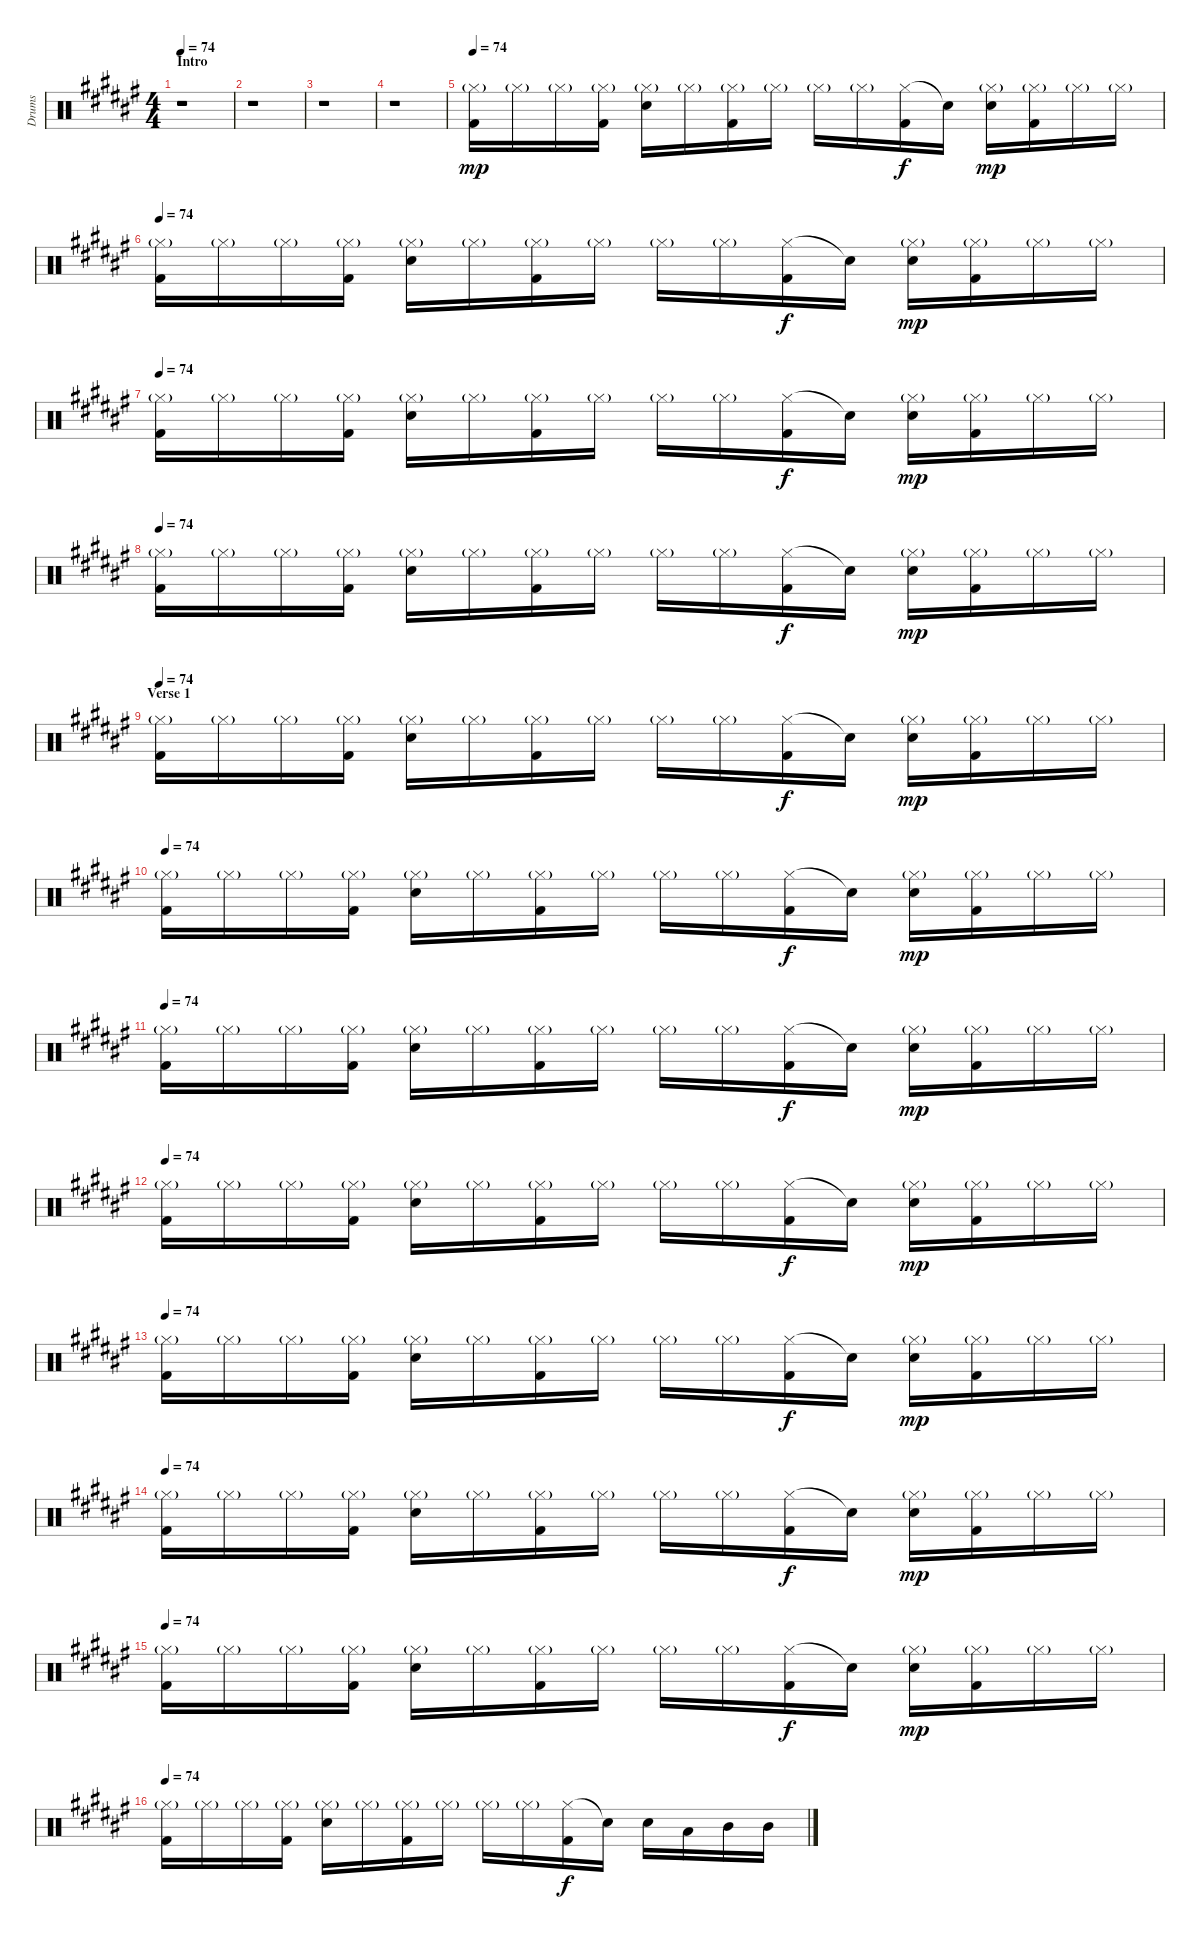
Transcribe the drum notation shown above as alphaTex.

\track ("Drums" "Drums") {instrument percussion}
\staff {score}
\articulation defaults
\ts (4 4)
\section ("" "Intro")
\tempo 74
\tempo 100
\tempo 74
\clef neutral
\ks f#
r.1{dy mp} |
r.1 |
r.1 |
r.1 |
\tempo 74
("Hi-Hat (closed)"{g} "Kick (hit) 2").16 "Hi-Hat (closed)"{g}.16 "Hi-Hat (closed)"{g}.16 ("Hi-Hat (closed)"{g} "Kick (hit) 2").16 ("Hi-Hat (closed)"{g} "Electric Snare (hit)").16 "Hi-Hat (closed)"{g}.16 ("Hi-Hat (closed)"{g} "Kick (hit) 2").16 "Hi-Hat (closed)"{g}.16 "Hi-Hat (closed)"{g}.16 "Hi-Hat (closed)"{g}.16 ("Hi-Hat (closed)" "Kick (hit) 2").16{dy f} "Snare (hit)"{t}.16 ("Hi-Hat (closed)"{g} "Electric Snare (hit)").16{dy mp} ("Hi-Hat (closed)"{g} "Kick (hit) 2").16 "Hi-Hat (closed)"{g}.16 "Hi-Hat (closed)"{g}.16 |
\tempo 74
("Hi-Hat (closed)"{g} "Kick (hit) 2").16 "Hi-Hat (closed)"{g}.16 "Hi-Hat (closed)"{g}.16 ("Hi-Hat (closed)"{g} "Kick (hit) 2").16 ("Hi-Hat (closed)"{g} "Electric Snare (hit)").16 "Hi-Hat (closed)"{g}.16 ("Hi-Hat (closed)"{g} "Kick (hit) 2").16 "Hi-Hat (closed)"{g}.16 "Hi-Hat (closed)"{g}.16 "Hi-Hat (closed)"{g}.16 ("Hi-Hat (closed)" "Kick (hit) 2").16{dy f} "Snare (hit)"{t}.16 ("Hi-Hat (closed)"{g} "Electric Snare (hit)").16{dy mp} ("Hi-Hat (closed)"{g} "Kick (hit) 2").16 "Hi-Hat (closed)"{g}.16 "Hi-Hat (closed)"{g}.16 |
\tempo 74
("Hi-Hat (closed)"{g} "Kick (hit) 2").16 "Hi-Hat (closed)"{g}.16 "Hi-Hat (closed)"{g}.16 ("Hi-Hat (closed)"{g} "Kick (hit) 2").16 ("Hi-Hat (closed)"{g} "Electric Snare (hit)").16 "Hi-Hat (closed)"{g}.16 ("Hi-Hat (closed)"{g} "Kick (hit) 2").16 "Hi-Hat (closed)"{g}.16 "Hi-Hat (closed)"{g}.16 "Hi-Hat (closed)"{g}.16 ("Hi-Hat (closed)" "Kick (hit) 2").16{dy f} "Snare (hit)"{t}.16 ("Hi-Hat (closed)"{g} "Electric Snare (hit)").16{dy mp} ("Hi-Hat (closed)"{g} "Kick (hit) 2").16 "Hi-Hat (closed)"{g}.16 "Hi-Hat (closed)"{g}.16 |
\tempo 74
("Hi-Hat (closed)"{g} "Kick (hit) 2").16 "Hi-Hat (closed)"{g}.16 "Hi-Hat (closed)"{g}.16 ("Hi-Hat (closed)"{g} "Kick (hit) 2").16 ("Hi-Hat (closed)"{g} "Electric Snare (hit)").16 "Hi-Hat (closed)"{g}.16 ("Hi-Hat (closed)"{g} "Kick (hit) 2").16 "Hi-Hat (closed)"{g}.16 "Hi-Hat (closed)"{g}.16 "Hi-Hat (closed)"{g}.16 ("Hi-Hat (closed)" "Kick (hit) 2").16{dy f} "Snare (hit)"{t}.16 ("Hi-Hat (closed)"{g} "Electric Snare (hit)").16{dy mp} ("Hi-Hat (closed)"{g} "Kick (hit) 2").16 "Hi-Hat (closed)"{g}.16 "Hi-Hat (closed)"{g}.16 |
\section ("" "Verse 1")
\tempo 74
("Hi-Hat (closed)"{g} "Kick (hit) 2").16 "Hi-Hat (closed)"{g}.16 "Hi-Hat (closed)"{g}.16 ("Hi-Hat (closed)"{g} "Kick (hit) 2").16 ("Hi-Hat (closed)"{g} "Electric Snare (hit)").16 "Hi-Hat (closed)"{g}.16 ("Hi-Hat (closed)"{g} "Kick (hit) 2").16 "Hi-Hat (closed)"{g}.16 "Hi-Hat (closed)"{g}.16 "Hi-Hat (closed)"{g}.16 ("Hi-Hat (closed)" "Kick (hit) 2").16{dy f} "Snare (hit)"{t}.16 ("Hi-Hat (closed)"{g} "Electric Snare (hit)").16{dy mp} ("Hi-Hat (closed)"{g} "Kick (hit) 2").16 "Hi-Hat (closed)"{g}.16 "Hi-Hat (closed)"{g}.16 |
\tempo 74
("Hi-Hat (closed)"{g} "Kick (hit) 2").16 "Hi-Hat (closed)"{g}.16 "Hi-Hat (closed)"{g}.16 ("Hi-Hat (closed)"{g} "Kick (hit) 2").16 ("Hi-Hat (closed)"{g} "Electric Snare (hit)").16 "Hi-Hat (closed)"{g}.16 ("Hi-Hat (closed)"{g} "Kick (hit) 2").16 "Hi-Hat (closed)"{g}.16 "Hi-Hat (closed)"{g}.16 "Hi-Hat (closed)"{g}.16 ("Hi-Hat (closed)" "Kick (hit) 2").16{dy f} "Snare (hit)"{t}.16 ("Hi-Hat (closed)"{g} "Electric Snare (hit)").16{dy mp} ("Hi-Hat (closed)"{g} "Kick (hit) 2").16 "Hi-Hat (closed)"{g}.16 "Hi-Hat (closed)"{g}.16 |
\tempo 74
("Hi-Hat (closed)"{g} "Kick (hit) 2").16 "Hi-Hat (closed)"{g}.16 "Hi-Hat (closed)"{g}.16 ("Hi-Hat (closed)"{g} "Kick (hit) 2").16 ("Hi-Hat (closed)"{g} "Electric Snare (hit)").16 "Hi-Hat (closed)"{g}.16 ("Hi-Hat (closed)"{g} "Kick (hit) 2").16 "Hi-Hat (closed)"{g}.16 "Hi-Hat (closed)"{g}.16 "Hi-Hat (closed)"{g}.16 ("Hi-Hat (closed)" "Kick (hit) 2").16{dy f} "Snare (hit)"{t}.16 ("Hi-Hat (closed)"{g} "Electric Snare (hit)").16{dy mp} ("Hi-Hat (closed)"{g} "Kick (hit) 2").16 "Hi-Hat (closed)"{g}.16 "Hi-Hat (closed)"{g}.16 |
\tempo 74
("Hi-Hat (closed)"{g} "Kick (hit) 2").16 "Hi-Hat (closed)"{g}.16 "Hi-Hat (closed)"{g}.16 ("Hi-Hat (closed)"{g} "Kick (hit) 2").16 ("Hi-Hat (closed)"{g} "Electric Snare (hit)").16 "Hi-Hat (closed)"{g}.16 ("Hi-Hat (closed)"{g} "Kick (hit) 2").16 "Hi-Hat (closed)"{g}.16 "Hi-Hat (closed)"{g}.16 "Hi-Hat (closed)"{g}.16 ("Hi-Hat (closed)" "Kick (hit) 2").16{dy f} "Snare (hit)"{t}.16 ("Hi-Hat (closed)"{g} "Electric Snare (hit)").16{dy mp} ("Hi-Hat (closed)"{g} "Kick (hit) 2").16 "Hi-Hat (closed)"{g}.16 "Hi-Hat (closed)"{g}.16 |
\tempo 74
("Hi-Hat (closed)"{g} "Kick (hit) 2").16 "Hi-Hat (closed)"{g}.16 "Hi-Hat (closed)"{g}.16 ("Hi-Hat (closed)"{g} "Kick (hit) 2").16 ("Hi-Hat (closed)"{g} "Electric Snare (hit)").16 "Hi-Hat (closed)"{g}.16 ("Hi-Hat (closed)"{g} "Kick (hit) 2").16 "Hi-Hat (closed)"{g}.16 "Hi-Hat (closed)"{g}.16 "Hi-Hat (closed)"{g}.16 ("Hi-Hat (closed)" "Kick (hit) 2").16{dy f} "Snare (hit)"{t}.16 ("Hi-Hat (closed)"{g} "Electric Snare (hit)").16{dy mp} ("Hi-Hat (closed)"{g} "Kick (hit) 2").16 "Hi-Hat (closed)"{g}.16 "Hi-Hat (closed)"{g}.16 |
\tempo 74
("Hi-Hat (closed)"{g} "Kick (hit) 2").16 "Hi-Hat (closed)"{g}.16 "Hi-Hat (closed)"{g}.16 ("Hi-Hat (closed)"{g} "Kick (hit) 2").16 ("Hi-Hat (closed)"{g} "Electric Snare (hit)").16 "Hi-Hat (closed)"{g}.16 ("Hi-Hat (closed)"{g} "Kick (hit) 2").16 "Hi-Hat (closed)"{g}.16 "Hi-Hat (closed)"{g}.16 "Hi-Hat (closed)"{g}.16 ("Hi-Hat (closed)" "Kick (hit) 2").16{dy f} "Snare (hit)"{t}.16 ("Hi-Hat (closed)"{g} "Electric Snare (hit)").16{dy mp} ("Hi-Hat (closed)"{g} "Kick (hit) 2").16 "Hi-Hat (closed)"{g}.16 "Hi-Hat (closed)"{g}.16 |
\tempo 74
("Hi-Hat (closed)"{g} "Kick (hit) 2").16 "Hi-Hat (closed)"{g}.16 "Hi-Hat (closed)"{g}.16 ("Hi-Hat (closed)"{g} "Kick (hit) 2").16 ("Hi-Hat (closed)"{g} "Electric Snare (hit)").16 "Hi-Hat (closed)"{g}.16 ("Hi-Hat (closed)"{g} "Kick (hit) 2").16 "Hi-Hat (closed)"{g}.16 "Hi-Hat (closed)"{g}.16 "Hi-Hat (closed)"{g}.16 ("Hi-Hat (closed)" "Kick (hit) 2").16{dy f} "Snare (hit)"{t}.16 ("Hi-Hat (closed)"{g} "Electric Snare (hit)").16{dy mp} ("Hi-Hat (closed)"{g} "Kick (hit) 2").16 "Hi-Hat (closed)"{g}.16 "Hi-Hat (closed)"{g}.16 |
\tempo 74
("Hi-Hat (closed)"{g} "Kick (hit) 2").16 "Hi-Hat (closed)"{g}.16 "Hi-Hat (closed)"{g}.16 ("Hi-Hat (closed)"{g} "Kick (hit) 2").16 ("Hi-Hat (closed)"{g} "Electric Snare (hit)").16 "Hi-Hat (closed)"{g}.16 ("Hi-Hat (closed)"{g} "Kick (hit) 2").16 "Hi-Hat (closed)"{g}.16 "Hi-Hat (closed)"{g}.16 "Hi-Hat (closed)"{g}.16 ("Hi-Hat (closed)" "Kick (hit) 2").16{dy f} "Snare (hit)"{t}.16 "Electric Snare (hit)".16 "Low Tom (hit)".16 "Mid Tom (hit)".16 "Mid Tom (hit)".16
